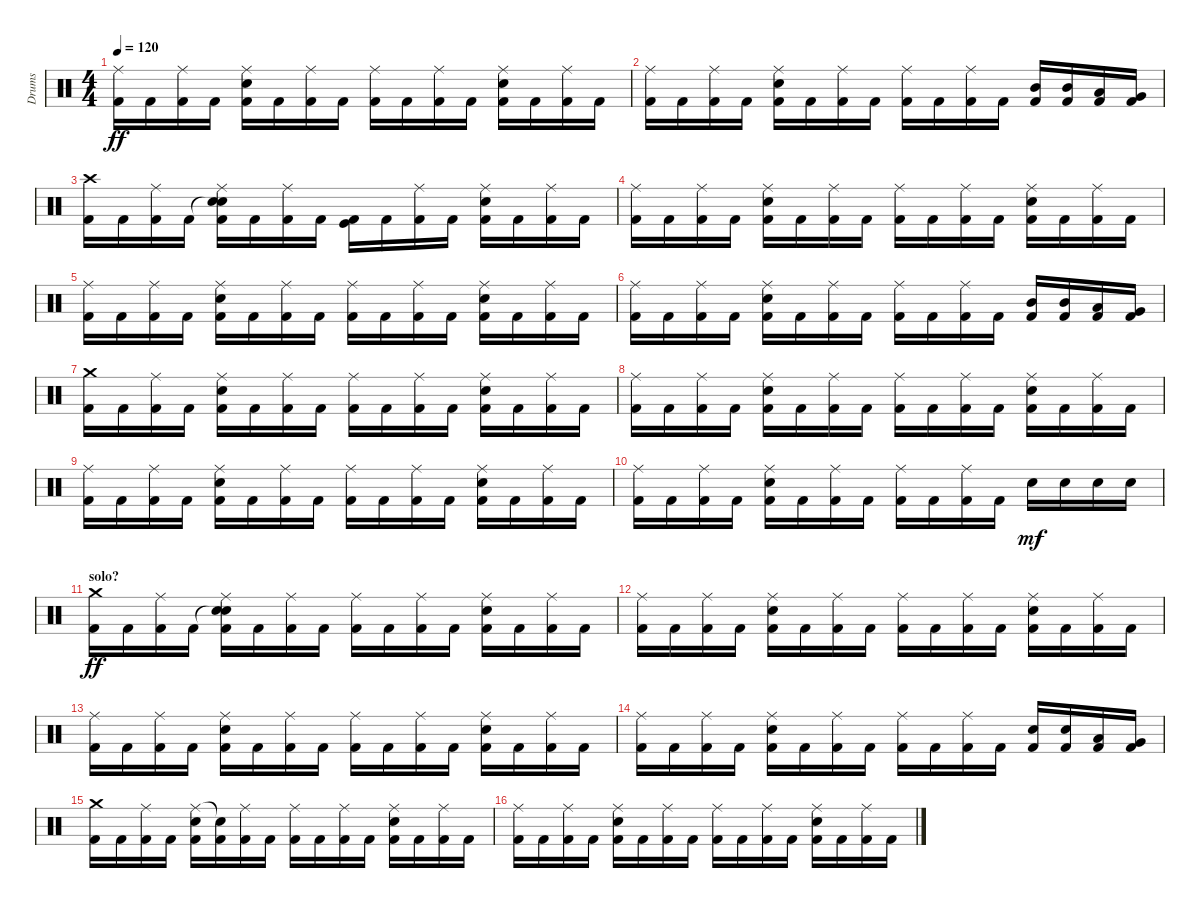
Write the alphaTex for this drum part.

\track ("Drums" "Drums") {instrument percussion}
\staff {score}
\articulation defaults
\ts (4 4)
\tempo 120
\clef neutral
\ks c
("Ride (middle)" "Kick (hit) 2").16{dy ff} "Kick (hit) 2".16 ("Ride (middle)" "Kick (hit) 2").16 "Kick (hit) 2".16 ("Ride (middle)" "Electric Snare (hit)" "Kick (hit) 2").16 "Kick (hit) 2".16 ("Ride (middle)" "Kick (hit) 2").16 "Kick (hit) 2".16 ("Ride (middle)" "Kick (hit) 2").16 "Kick (hit) 2".16 ("Ride (middle)" "Kick (hit) 2").16 "Kick (hit) 2".16 ("Ride (middle)" "Electric Snare (hit)" "Kick (hit) 2").16 "Kick (hit) 2".16 ("Ride (middle)" "Kick (hit) 2").16 "Kick (hit) 2".16 |
("Ride (middle)" "Kick (hit) 2").16 "Kick (hit) 2".16 ("Ride (middle)" "Kick (hit) 2").16 "Kick (hit) 2".16 ("Ride (middle)" "Electric Snare (hit)" "Kick (hit) 2").16 "Kick (hit) 2".16 ("Ride (middle)" "Kick (hit) 2").16 "Kick (hit) 2".16 ("Ride (middle)" "Kick (hit) 2").16 "Kick (hit) 2".16 ("Ride (middle)" "Kick (hit) 2").16 "Kick (hit) 2".16 ("Mid Tom (hit)" "Kick (hit) 2").16 ("Mid Tom (hit)" "Kick (hit) 2").16 ("Low Tom (hit)" "Kick (hit) 2").16 ("Very Low Tom (hit)" "Kick (hit) 2").16 |
("Crash high (hit)" "Kick (hit) 2").16 "Kick (hit) 2".16 ("Ride (middle)" "Kick (hit) 2").16 "Kick (hit) 2".16 ("Snare (hit)"{t} "Ride (middle)" "Electric Snare (hit)" "Kick (hit) 2").16 "Kick (hit) 2".16 ("Ride (middle)" "Kick (hit) 2").16 "Kick (hit) 2".16 ("Kick (hit)" "Kick (hit) 2").16 "Kick (hit) 2".16 ("Ride (middle)" "Kick (hit) 2").16 "Kick (hit) 2".16 ("Ride (middle)" "Electric Snare (hit)" "Kick (hit) 2").16 "Kick (hit) 2".16 ("Ride (middle)" "Kick (hit) 2").16 "Kick (hit) 2".16 |
("Ride (middle)" "Kick (hit) 2").16 "Kick (hit) 2".16 ("Ride (middle)" "Kick (hit) 2").16 "Kick (hit) 2".16 ("Ride (middle)" "Electric Snare (hit)" "Kick (hit) 2").16 "Kick (hit) 2".16 ("Ride (middle)" "Kick (hit) 2").16 "Kick (hit) 2".16 ("Ride (middle)" "Kick (hit) 2").16 "Kick (hit) 2".16 ("Ride (middle)" "Kick (hit) 2").16 "Kick (hit) 2".16 ("Ride (middle)" "Electric Snare (hit)" "Kick (hit) 2").16 "Kick (hit) 2".16 ("Ride (middle)" "Kick (hit) 2").16 "Kick (hit) 2".16 |
("Ride (middle)" "Kick (hit) 2").16 "Kick (hit) 2".16 ("Ride (middle)" "Kick (hit) 2").16 "Kick (hit) 2".16 ("Ride (middle)" "Electric Snare (hit)" "Kick (hit) 2").16 "Kick (hit) 2".16 ("Ride (middle)" "Kick (hit) 2").16 "Kick (hit) 2".16 ("Ride (middle)" "Kick (hit) 2").16 "Kick (hit) 2".16 ("Ride (middle)" "Kick (hit) 2").16 "Kick (hit) 2".16 ("Ride (middle)" "Electric Snare (hit)" "Kick (hit) 2").16 "Kick (hit) 2".16 ("Ride (middle)" "Kick (hit) 2").16 "Kick (hit) 2".16 |
("Ride (middle)" "Kick (hit) 2").16 "Kick (hit) 2".16 ("Ride (middle)" "Kick (hit) 2").16 "Kick (hit) 2".16 ("Ride (middle)" "Electric Snare (hit)" "Kick (hit) 2").16 "Kick (hit) 2".16 ("Ride (middle)" "Kick (hit) 2").16 "Kick (hit) 2".16 ("Ride (middle)" "Kick (hit) 2").16 "Kick (hit) 2".16 ("Ride (middle)" "Kick (hit) 2").16 "Kick (hit) 2".16 ("Mid Tom (hit)" "Kick (hit) 2").16 ("Mid Tom (hit)" "Kick (hit) 2").16 ("Low Tom (hit)" "Kick (hit) 2").16 ("Very Low Tom (hit)" "Kick (hit) 2").16 |
("Crash medium (hit)" "Kick (hit) 2").16 "Kick (hit) 2".16 ("Ride (middle)" "Kick (hit) 2").16 "Kick (hit) 2".16 ("Ride (middle)" "Electric Snare (hit)" "Kick (hit) 2").16 "Kick (hit) 2".16 ("Ride (middle)" "Kick (hit) 2").16 "Kick (hit) 2".16 ("Ride (middle)" "Kick (hit) 2").16 "Kick (hit) 2".16 ("Ride (middle)" "Kick (hit) 2").16 "Kick (hit) 2".16 ("Ride (middle)" "Electric Snare (hit)" "Kick (hit) 2").16 "Kick (hit) 2".16 ("Ride (middle)" "Kick (hit) 2").16 "Kick (hit) 2".16 |
("Ride (middle)" "Kick (hit) 2").16 "Kick (hit) 2".16 ("Ride (middle)" "Kick (hit) 2").16 "Kick (hit) 2".16 ("Ride (middle)" "Electric Snare (hit)" "Kick (hit) 2").16 "Kick (hit) 2".16 ("Ride (middle)" "Kick (hit) 2").16 "Kick (hit) 2".16 ("Ride (middle)" "Kick (hit) 2").16 "Kick (hit) 2".16 ("Ride (middle)" "Kick (hit) 2").16 "Kick (hit) 2".16 ("Ride (middle)" "Electric Snare (hit)" "Kick (hit) 2").16 "Kick (hit) 2".16 ("Ride (middle)" "Kick (hit) 2").16 "Kick (hit) 2".16 |
("Ride (middle)" "Kick (hit) 2").16 "Kick (hit) 2".16 ("Ride (middle)" "Kick (hit) 2").16 "Kick (hit) 2".16 ("Ride (middle)" "Electric Snare (hit)" "Kick (hit) 2").16 "Kick (hit) 2".16 ("Ride (middle)" "Kick (hit) 2").16 "Kick (hit) 2".16 ("Ride (middle)" "Kick (hit) 2").16 "Kick (hit) 2".16 ("Ride (middle)" "Kick (hit) 2").16 "Kick (hit) 2".16 ("Ride (middle)" "Electric Snare (hit)" "Kick (hit) 2").16 "Kick (hit) 2".16 ("Ride (middle)" "Kick (hit) 2").16 "Kick (hit) 2".16 |
("Ride (middle)" "Kick (hit) 2").16 "Kick (hit) 2".16 ("Ride (middle)" "Kick (hit) 2").16 "Kick (hit) 2".16 ("Ride (middle)" "Electric Snare (hit)" "Kick (hit) 2").16 "Kick (hit) 2".16 ("Ride (middle)" "Kick (hit) 2").16 "Kick (hit) 2".16 ("Ride (middle)" "Kick (hit) 2").16 "Kick (hit) 2".16 ("Ride (middle)" "Kick (hit) 2").16 "Kick (hit) 2".16 "Electric Snare (hit)".16{dy mf} "Electric Snare (hit)".16 "Electric Snare (hit)".16 "Electric Snare (hit)".16 |
\section ("" "solo?")
("Crash medium (hit)" "Kick (hit) 2").16{dy ff} "Kick (hit) 2".16 ("Ride (middle)" "Kick (hit) 2").16 "Kick (hit) 2".16 ("Snare (hit)"{t} "Ride (middle)" "Electric Snare (hit)" "Kick (hit) 2").16 "Kick (hit) 2".16 ("Ride (middle)" "Kick (hit) 2").16 "Kick (hit) 2".16 ("Ride (middle)" "Kick (hit) 2").16 "Kick (hit) 2".16 ("Ride (middle)" "Kick (hit) 2").16 "Kick (hit) 2".16 ("Ride (middle)" "Electric Snare (hit)" "Kick (hit) 2").16 "Kick (hit) 2".16 ("Ride (middle)" "Kick (hit) 2").16 "Kick (hit) 2".16 |
("Ride (middle)" "Kick (hit) 2").16 "Kick (hit) 2".16 ("Ride (middle)" "Kick (hit) 2").16 "Kick (hit) 2".16 ("Ride (middle)" "Electric Snare (hit)" "Kick (hit) 2").16 "Kick (hit) 2".16 ("Ride (middle)" "Kick (hit) 2").16 "Kick (hit) 2".16 ("Ride (middle)" "Kick (hit) 2").16 "Kick (hit) 2".16 ("Ride (middle)" "Kick (hit) 2").16 "Kick (hit) 2".16 ("Ride (middle)" "Electric Snare (hit)" "Kick (hit) 2").16 "Kick (hit) 2".16 ("Ride (middle)" "Kick (hit) 2").16 "Kick (hit) 2".16 |
("Ride (middle)" "Kick (hit) 2").16 "Kick (hit) 2".16 ("Ride (middle)" "Kick (hit) 2").16 "Kick (hit) 2".16 ("Ride (middle)" "Electric Snare (hit)" "Kick (hit) 2").16 "Kick (hit) 2".16 ("Ride (middle)" "Kick (hit) 2").16 "Kick (hit) 2".16 ("Ride (middle)" "Kick (hit) 2").16 "Kick (hit) 2".16 ("Ride (middle)" "Kick (hit) 2").16 "Kick (hit) 2".16 ("Ride (middle)" "Electric Snare (hit)" "Kick (hit) 2").16 "Kick (hit) 2".16 ("Ride (middle)" "Kick (hit) 2").16 "Kick (hit) 2".16 |
("Ride (middle)" "Kick (hit) 2").16 "Kick (hit) 2".16 ("Ride (middle)" "Kick (hit) 2").16 "Kick (hit) 2".16 ("Ride (middle)" "Electric Snare (hit)" "Kick (hit) 2").16 "Kick (hit) 2".16 ("Ride (middle)" "Kick (hit) 2").16 "Kick (hit) 2".16 ("Ride (middle)" "Kick (hit) 2").16 "Kick (hit) 2".16 ("Ride (middle)" "Kick (hit) 2").16 "Kick (hit) 2".16 ("Electric Snare (hit)" "Kick (hit) 2").16 ("Electric Snare (hit)" "Kick (hit) 2").16 ("Low Tom (hit)" "Kick (hit) 2").16 ("Very Low Tom (hit)" "Kick (hit) 2").16 |
("Crash medium (hit)" "Kick (hit) 2").16 "Kick (hit) 2".16 ("Ride (middle)" "Kick (hit) 2").16 "Kick (hit) 2".16 ("Ride (middle)" "Electric Snare (hit)" "Kick (hit) 2").16 ("Snare (hit)"{t} "Kick (hit) 2").16 ("Ride (middle)" "Kick (hit) 2").16 "Kick (hit) 2".16 ("Ride (middle)" "Kick (hit) 2").16 "Kick (hit) 2".16 ("Ride (middle)" "Kick (hit) 2").16 "Kick (hit) 2".16 ("Ride (middle)" "Electric Snare (hit)" "Kick (hit) 2").16 "Kick (hit) 2".16 ("Ride (middle)" "Kick (hit) 2").16 "Kick (hit) 2".16 |
("Ride (middle)" "Kick (hit) 2").16 "Kick (hit) 2".16 ("Ride (middle)" "Kick (hit) 2").16 "Kick (hit) 2".16 ("Ride (middle)" "Electric Snare (hit)" "Kick (hit) 2").16 "Kick (hit) 2".16 ("Ride (middle)" "Kick (hit) 2").16 "Kick (hit) 2".16 ("Ride (middle)" "Kick (hit) 2").16 "Kick (hit) 2".16 ("Ride (middle)" "Kick (hit) 2").16 "Kick (hit) 2".16 ("Ride (middle)" "Electric Snare (hit)" "Kick (hit) 2").16 "Kick (hit) 2".16 ("Ride (middle)" "Kick (hit) 2").16 "Kick (hit) 2".16
